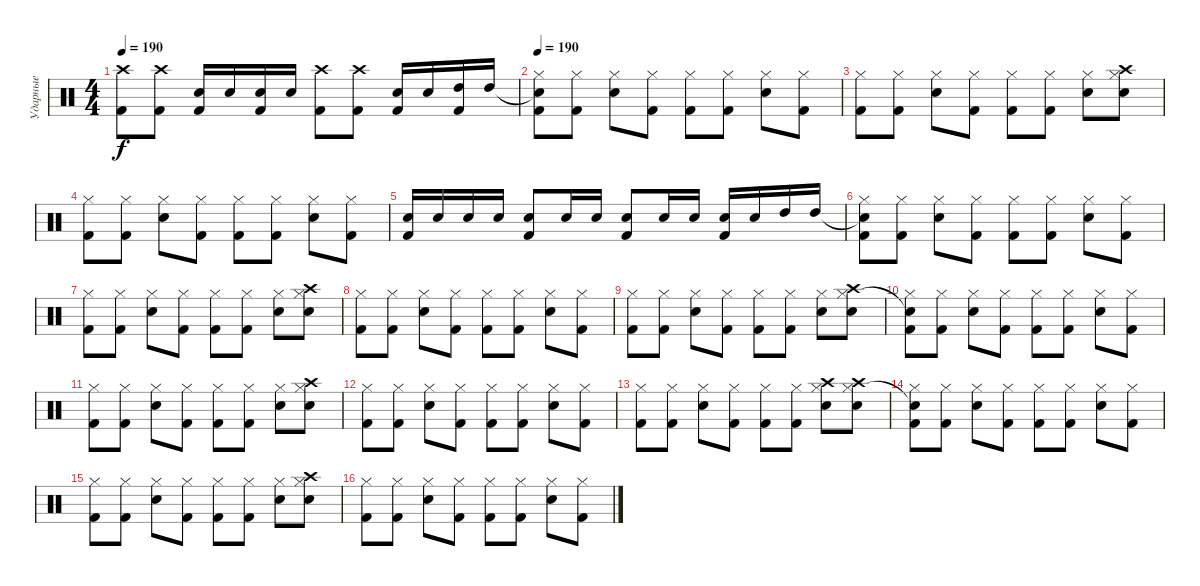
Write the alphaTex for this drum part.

\track ("Ударные" "Ударные") {instrument percussion}
\staff {score}
\articulation defaults
\ts (4 4)
\tempo 190
\clef neutral
\ks c
("Crash high (hit)" "Kick (hit) 2").8{dy f} ("Crash high (hit)" "Kick (hit) 2").8 ("Electric Snare (hit)" "Kick (hit) 2").16 "Electric Snare (hit)".16 ("Electric Snare (hit)" "Kick (hit) 2").16 "Electric Snare (hit)".16 ("Crash high (hit)" "Kick (hit) 2").8 ("Crash high (hit)" "Kick (hit) 2").8 ("Electric Snare (hit)" "Kick (hit) 2").16 "Electric Snare (hit)".16 ("High Tom (hit)" "Kick (hit) 2").16 "High Tom (hit)".16 |
\tempo 190
("Snare (hit)"{t} "Hi-Hat (closed)" "Kick (hit) 2").8 ("Hi-Hat (closed)" "Kick (hit) 2").8 ("Hi-Hat (closed)" "Electric Snare (hit)").8 ("Hi-Hat (closed)" "Kick (hit) 2").8 ("Hi-Hat (closed)" "Kick (hit) 2").8 ("Hi-Hat (closed)" "Kick (hit) 2").8 ("Hi-Hat (closed)" "Electric Snare (hit)").8 ("Hi-Hat (closed)" "Kick (hit) 2").8 |
("Hi-Hat (closed)" "Kick (hit) 2").8 ("Hi-Hat (closed)" "Kick (hit) 2").8 ("Hi-Hat (closed)" "Electric Snare (hit)").8 ("Hi-Hat (closed)" "Kick (hit) 2").8 ("Hi-Hat (closed)" "Kick (hit) 2").8 ("Hi-Hat (closed)" "Kick (hit) 2").8 ("Hi-Hat (closed)" "Electric Snare (hit)").8 ("Hi-Hat (closed)" "Crash high (hit)" "Electric Snare (hit)").8 |
("Hi-Hat (closed)" "Kick (hit) 2").8 ("Hi-Hat (closed)" "Kick (hit) 2").8 ("Hi-Hat (closed)" "Electric Snare (hit)").8 ("Hi-Hat (closed)" "Kick (hit) 2").8 ("Hi-Hat (closed)" "Kick (hit) 2").8 ("Hi-Hat (closed)" "Kick (hit) 2").8 ("Hi-Hat (closed)" "Electric Snare (hit)").8 ("Hi-Hat (closed)" "Kick (hit) 2").8 |
("Electric Snare (hit)" "Kick (hit) 2").16 "Electric Snare (hit)".16 "Electric Snare (hit)".16 "Electric Snare (hit)".16 ("Electric Snare (hit)" "Kick (hit) 2").8 "Electric Snare (hit)".16 "Electric Snare (hit)".16 ("Electric Snare (hit)" "Kick (hit) 2").8 "Electric Snare (hit)".16 "Electric Snare (hit)".16 ("Electric Snare (hit)" "Kick (hit) 2").16 "Electric Snare (hit)".16 "High Tom (hit)".16 "High Tom (hit)".16 |
("Snare (hit)"{t} "Hi-Hat (closed)" "Kick (hit) 2").8 ("Hi-Hat (closed)" "Kick (hit) 2").8 ("Hi-Hat (closed)" "Electric Snare (hit)").8 ("Hi-Hat (closed)" "Kick (hit) 2").8 ("Hi-Hat (closed)" "Kick (hit) 2").8 ("Hi-Hat (closed)" "Kick (hit) 2").8 ("Hi-Hat (closed)" "Electric Snare (hit)").8 ("Hi-Hat (closed)" "Kick (hit) 2").8 |
("Hi-Hat (closed)" "Kick (hit) 2").8 ("Hi-Hat (closed)" "Kick (hit) 2").8 ("Hi-Hat (closed)" "Electric Snare (hit)").8 ("Hi-Hat (closed)" "Kick (hit) 2").8 ("Hi-Hat (closed)" "Kick (hit) 2").8 ("Hi-Hat (closed)" "Kick (hit) 2").8 ("Hi-Hat (closed)" "Electric Snare (hit)").8 ("Hi-Hat (closed)" "Crash high (hit)" "Electric Snare (hit)").8 |
("Hi-Hat (closed)" "Kick (hit) 2").8 ("Hi-Hat (closed)" "Kick (hit) 2").8 ("Hi-Hat (closed)" "Electric Snare (hit)").8 ("Hi-Hat (closed)" "Kick (hit) 2").8 ("Hi-Hat (closed)" "Kick (hit) 2").8 ("Hi-Hat (closed)" "Kick (hit) 2").8 ("Hi-Hat (closed)" "Electric Snare (hit)").8 ("Hi-Hat (closed)" "Kick (hit) 2").8 |
("Hi-Hat (closed)" "Kick (hit) 2").8 ("Hi-Hat (closed)" "Kick (hit) 2").8 ("Hi-Hat (closed)" "Electric Snare (hit)").8 ("Hi-Hat (closed)" "Kick (hit) 2").8 ("Hi-Hat (closed)" "Kick (hit) 2").8 ("Hi-Hat (closed)" "Kick (hit) 2").8 ("Hi-Hat (closed)" "Electric Snare (hit)").8 ("Hi-Hat (closed)" "Crash high (hit)" "Electric Snare (hit)").8 |
("Snare (hit)"{t} "Hi-Hat (closed)" "Kick (hit) 2").8 ("Hi-Hat (closed)" "Kick (hit) 2").8 ("Hi-Hat (closed)" "Electric Snare (hit)").8 ("Hi-Hat (closed)" "Kick (hit) 2").8 ("Hi-Hat (closed)" "Kick (hit) 2").8 ("Hi-Hat (closed)" "Kick (hit) 2").8 ("Hi-Hat (closed)" "Electric Snare (hit)").8 ("Hi-Hat (closed)" "Kick (hit) 2").8 |
("Hi-Hat (closed)" "Kick (hit) 2").8 ("Hi-Hat (closed)" "Kick (hit) 2").8 ("Hi-Hat (closed)" "Electric Snare (hit)").8 ("Hi-Hat (closed)" "Kick (hit) 2").8 ("Hi-Hat (closed)" "Kick (hit) 2").8 ("Hi-Hat (closed)" "Kick (hit) 2").8 ("Hi-Hat (closed)" "Electric Snare (hit)").8 ("Hi-Hat (closed)" "Crash high (hit)" "Electric Snare (hit)").8 |
("Hi-Hat (closed)" "Kick (hit) 2").8 ("Hi-Hat (closed)" "Kick (hit) 2").8 ("Hi-Hat (closed)" "Electric Snare (hit)").8 ("Hi-Hat (closed)" "Kick (hit) 2").8 ("Hi-Hat (closed)" "Kick (hit) 2").8 ("Hi-Hat (closed)" "Kick (hit) 2").8 ("Hi-Hat (closed)" "Electric Snare (hit)").8 ("Hi-Hat (closed)" "Kick (hit) 2").8 |
("Hi-Hat (closed)" "Kick (hit) 2").8 ("Hi-Hat (closed)" "Kick (hit) 2").8 ("Hi-Hat (closed)" "Electric Snare (hit)").8 ("Hi-Hat (closed)" "Kick (hit) 2").8 ("Hi-Hat (closed)" "Kick (hit) 2").8 ("Hi-Hat (closed)" "Kick (hit) 2").8 ("Hi-Hat (closed)" "Crash high (hit)" "Electric Snare (hit)").8 ("Hi-Hat (closed)" "Crash high (hit)" "Electric Snare (hit)").8 |
("Snare (hit)"{t} "Hi-Hat (closed)" "Kick (hit) 2").8 ("Hi-Hat (closed)" "Kick (hit) 2").8 ("Hi-Hat (closed)" "Electric Snare (hit)").8 ("Hi-Hat (closed)" "Kick (hit) 2").8 ("Hi-Hat (closed)" "Kick (hit) 2").8 ("Hi-Hat (closed)" "Kick (hit) 2").8 ("Hi-Hat (closed)" "Electric Snare (hit)").8 ("Hi-Hat (closed)" "Kick (hit) 2").8 |
("Hi-Hat (closed)" "Kick (hit) 2").8 ("Hi-Hat (closed)" "Kick (hit) 2").8 ("Hi-Hat (closed)" "Electric Snare (hit)").8 ("Hi-Hat (closed)" "Kick (hit) 2").8 ("Hi-Hat (closed)" "Kick (hit) 2").8 ("Hi-Hat (closed)" "Kick (hit) 2").8 ("Hi-Hat (closed)" "Electric Snare (hit)").8 ("Hi-Hat (closed)" "Crash high (hit)" "Electric Snare (hit)").8 |
("Hi-Hat (closed)" "Kick (hit) 2").8 ("Hi-Hat (closed)" "Kick (hit) 2").8 ("Hi-Hat (closed)" "Electric Snare (hit)").8 ("Hi-Hat (closed)" "Kick (hit) 2").8 ("Hi-Hat (closed)" "Kick (hit) 2").8 ("Hi-Hat (closed)" "Kick (hit) 2").8 ("Hi-Hat (closed)" "Electric Snare (hit)").8 ("Hi-Hat (closed)" "Kick (hit) 2").8
